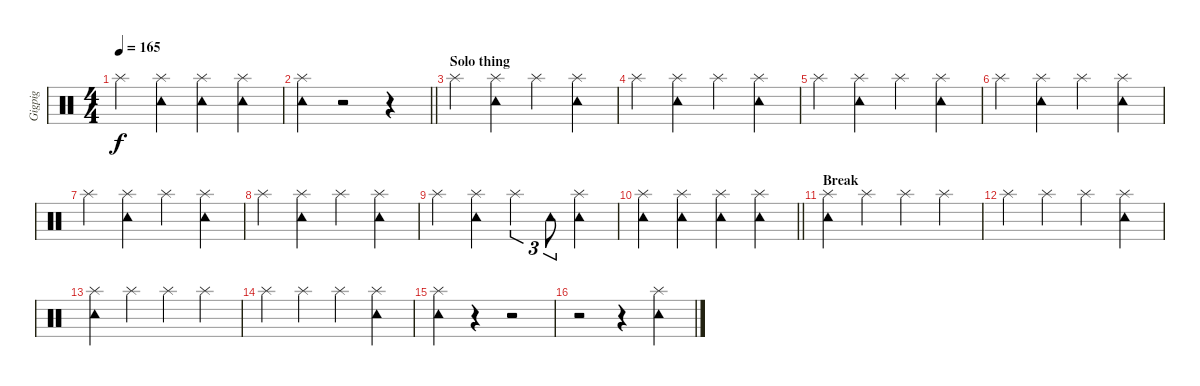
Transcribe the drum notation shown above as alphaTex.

\track ("Gigpig" "Gigpig") {instrument percussion}
\staff {score}
\articulation defaults
\ts (4 4)
\tempo 165
\clef neutral
\ks c "Splash (hit)".4{dy f}
("Splash (hit)" "Tambourine (hit)").4 ("Splash (hit)" "Tambourine (hit)").4 ("Splash (hit)" "Tambourine (hit)").4 |
\barLineRight lightlight
("Splash (hit)" "Tambourine (hit)").4 r.2 r.4 |
\section ("" "Solo thing")
"Splash (hit)".4 ("Splash (hit)" "Tambourine (hit)").4 "Splash (hit)".4 ("Splash (hit)" "Tambourine (hit)").4 |
"Splash (hit)".4 ("Splash (hit)" "Tambourine (hit)").4 "Splash (hit)".4 ("Splash (hit)" "Tambourine (hit)").4 |
"Splash (hit)".4 ("Splash (hit)" "Tambourine (hit)").4 "Splash (hit)".4 ("Splash (hit)" "Tambourine (hit)").4 |
"Splash (hit)".4 ("Splash (hit)" "Tambourine (hit)").4 "Splash (hit)".4 ("Splash (hit)" "Tambourine (hit)").4 |
"Splash (hit)".4 ("Splash (hit)" "Tambourine (hit)").4 "Splash (hit)".4 ("Splash (hit)" "Tambourine (hit)").4 |
"Splash (hit)".4 ("Splash (hit)" "Tambourine (hit)").4 "Splash (hit)".4 ("Splash (hit)" "Tambourine (hit)").4 |
"Splash (hit)".4 ("Splash (hit)" "Tambourine (hit)").4 "Splash (hit)".4{tu (3 2)} "Tambourine (hit)".8{tu (3 2)} ("Splash (hit)" "Tambourine (hit)").4 |
\barLineRight lightlight
("Splash (hit)" "Tambourine (hit)").4 ("Splash (hit)" "Tambourine (hit)").4 ("Splash (hit)" "Tambourine (hit)").4 ("Splash (hit)" "Tambourine (hit)").4 |
\section ("" "Break")
("Splash (hit)" "Tambourine (hit)").4 "Splash (hit)".4 "Splash (hit)".4 "Splash (hit)".4 |
"Splash (hit)".4 "Splash (hit)".4 "Splash (hit)".4 ("Splash (hit)" "Tambourine (hit)").4 |
("Splash (hit)" "Tambourine (hit)").4 "Splash (hit)".4 "Splash (hit)".4 "Splash (hit)".4 |
"Splash (hit)".4 "Splash (hit)".4 "Splash (hit)".4 ("Splash (hit)" "Tambourine (hit)").4 |
("Splash (hit)" "Tambourine (hit)").4 r.4 r.2 |
r.2 r.4 ("Splash (hit)" "Tambourine (hit)").4
